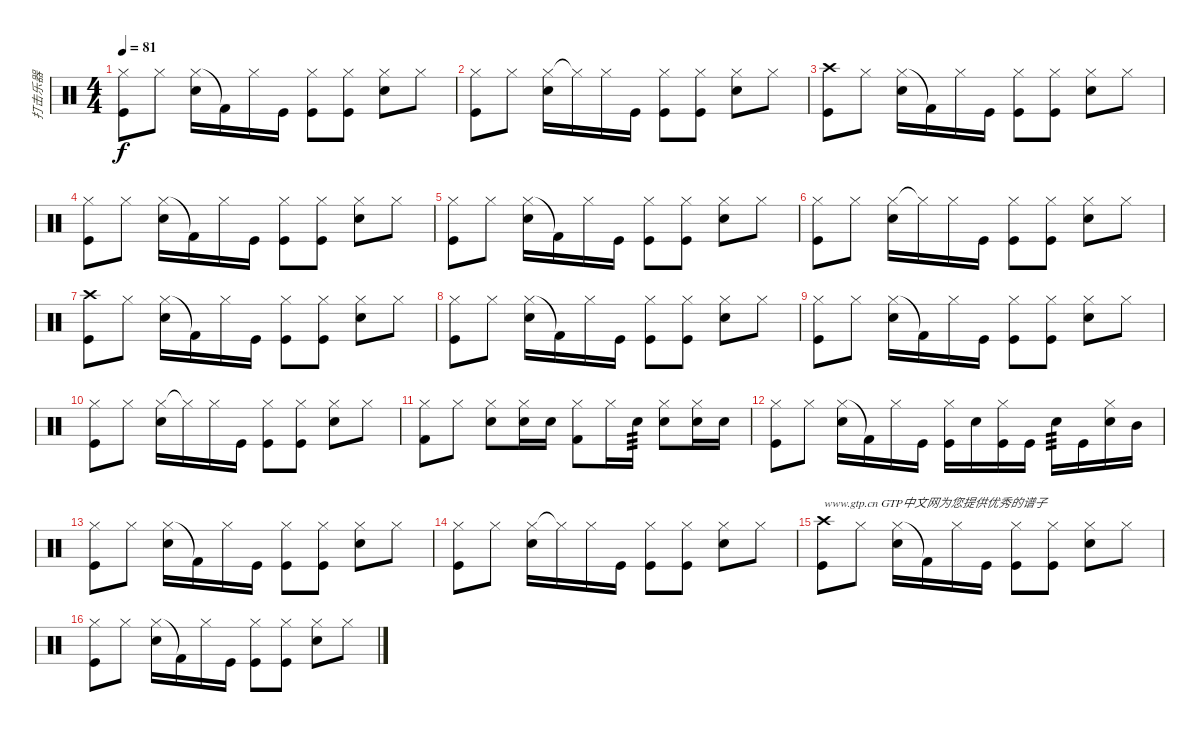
\track ("打击乐器" "打击乐器") {instrument percussion}
\staff {score}
\articulation defaults
\ts (4 4)
\tempo 81
\clef neutral
\ks c
("Hi-Hat (closed)" "Kick (hit)").8{dy f} "Hi-Hat (closed)".8 ("Hi-Hat (closed)" "Electric Snare (hit)").16 "Kick (hit) 2"{t}.16 "Hi-Hat (closed)".16 "Kick (hit)".16 ("Hi-Hat (closed)" "Kick (hit)").8 ("Hi-Hat (closed)" "Kick (hit)").8 ("Hi-Hat (closed)" "Electric Snare (hit)").8 "Hi-Hat (closed)".8 |
("Hi-Hat (closed)" "Kick (hit)").8 "Hi-Hat (closed)".8 ("Hi-Hat (closed)" "Electric Snare (hit)").16 "Hi-Hat (closed)"{t}.16 "Hi-Hat (closed)".16 "Kick (hit)".16 ("Hi-Hat (closed)" "Kick (hit)").8 ("Hi-Hat (closed)" "Kick (hit)").8 ("Hi-Hat (closed)" "Electric Snare (hit)").8 "Hi-Hat (closed)".8 |
("Crash high (hit)" "Kick (hit)").8 "Hi-Hat (closed)".8 ("Hi-Hat (closed)" "Electric Snare (hit)").16 "Kick (hit) 2"{t}.16 "Hi-Hat (closed)".16 "Kick (hit)".16 ("Hi-Hat (closed)" "Kick (hit)").8 ("Hi-Hat (closed)" "Kick (hit)").8 ("Hi-Hat (closed)" "Electric Snare (hit)").8 "Hi-Hat (closed)".8 |
("Hi-Hat (closed)" "Kick (hit)").8 "Hi-Hat (closed)".8 ("Hi-Hat (closed)" "Electric Snare (hit)").16 "Kick (hit) 2"{t}.16 "Hi-Hat (closed)".16 "Kick (hit)".16 ("Hi-Hat (closed)" "Kick (hit)").8 ("Hi-Hat (closed)" "Kick (hit)").8 ("Hi-Hat (closed)" "Electric Snare (hit)").8 "Hi-Hat (closed)".8 |
("Hi-Hat (closed)" "Kick (hit)").8 "Hi-Hat (closed)".8 ("Hi-Hat (closed)" "Electric Snare (hit)").16 "Kick (hit) 2"{t}.16 "Hi-Hat (closed)".16 "Kick (hit)".16 ("Hi-Hat (closed)" "Kick (hit)").8 ("Hi-Hat (closed)" "Kick (hit)").8 ("Hi-Hat (closed)" "Electric Snare (hit)").8 "Hi-Hat (closed)".8 |
("Hi-Hat (closed)" "Kick (hit)").8 "Hi-Hat (closed)".8 ("Hi-Hat (closed)" "Electric Snare (hit)").16 "Hi-Hat (closed)"{t}.16 "Hi-Hat (closed)".16 "Kick (hit)".16 ("Hi-Hat (closed)" "Kick (hit)").8 ("Hi-Hat (closed)" "Kick (hit)").8 ("Hi-Hat (closed)" "Electric Snare (hit)").8 "Hi-Hat (closed)".8 |
("Crash high (hit)" "Kick (hit)").8 "Hi-Hat (closed)".8 ("Hi-Hat (closed)" "Electric Snare (hit)").16 "Kick (hit) 2"{t}.16 "Hi-Hat (closed)".16 "Kick (hit)".16 ("Hi-Hat (closed)" "Kick (hit)").8 ("Hi-Hat (closed)" "Kick (hit)").8 ("Hi-Hat (closed)" "Electric Snare (hit)").8 "Hi-Hat (closed)".8 |
("Hi-Hat (closed)" "Kick (hit)").8 "Hi-Hat (closed)".8 ("Hi-Hat (closed)" "Electric Snare (hit)").16 "Kick (hit) 2"{t}.16 "Hi-Hat (closed)".16 "Kick (hit)".16 ("Hi-Hat (closed)" "Kick (hit)").8 ("Hi-Hat (closed)" "Kick (hit)").8 ("Hi-Hat (closed)" "Electric Snare (hit)").8 "Hi-Hat (closed)".8 |
("Hi-Hat (closed)" "Kick (hit)").8 "Hi-Hat (closed)".8 ("Hi-Hat (closed)" "Electric Snare (hit)").16 "Kick (hit) 2"{t}.16 "Hi-Hat (closed)".16 "Kick (hit)".16 ("Hi-Hat (closed)" "Kick (hit)").8 ("Hi-Hat (closed)" "Kick (hit)").8 ("Hi-Hat (closed)" "Electric Snare (hit)").8 "Hi-Hat (closed)".8 |
("Hi-Hat (closed)" "Kick (hit)").8 "Hi-Hat (closed)".8 ("Hi-Hat (closed)" "Electric Snare (hit)").16 "Hi-Hat (closed)"{t}.16 "Hi-Hat (closed)".16 "Kick (hit)".16 ("Hi-Hat (closed)" "Kick (hit)").8 ("Hi-Hat (closed)" "Kick (hit)").8 ("Hi-Hat (closed)" "Electric Snare (hit)").8 "Hi-Hat (closed)".8 |
("Hi-Hat (closed)" "Kick (hit) 2").8 "Hi-Hat (closed)".8 ("Hi-Hat (closed)" "Electric Snare (hit)").8 ("Hi-Hat (closed)" "Electric Snare (hit)").16 "Electric Snare (hit)".16 ("Hi-Hat (closed)" "Kick (hit) 2").8 "Hi-Hat (closed)".16 "Electric Snare (hit)".16{tp 3} ("Hi-Hat (closed)" "Electric Snare (hit)").8 ("Hi-Hat (closed)" "Electric Snare (hit)").16 "Electric Snare (hit)".16 |
("Hi-Hat (closed)" "Kick (hit)").8 "Hi-Hat (closed)".8 ("Hi-Hat (closed)" "Electric Snare (hit)").16 "Kick (hit) 2"{t}.16 "Hi-Hat (closed)".16 "Kick (hit)".16 ("Hi-Hat (closed)" "Kick (hit)").16 "Electric Snare (hit)".16 ("Hi-Hat (closed)" "Kick (hit)").16 "Kick (hit)".16 "Electric Snare (hit)".16{tp 3} "Kick (hit)".16 ("Hi-Hat (closed)" "Electric Snare (hit)").16 "Mid Tom (hit)".16 |
("Hi-Hat (closed)" "Kick (hit)").8 "Hi-Hat (closed)".8 ("Hi-Hat (closed)" "Electric Snare (hit)").16 "Kick (hit) 2"{t}.16 "Hi-Hat (closed)".16 "Kick (hit)".16 ("Hi-Hat (closed)" "Kick (hit)").8 ("Hi-Hat (closed)" "Kick (hit)").8 ("Hi-Hat (closed)" "Electric Snare (hit)").8 "Hi-Hat (closed)".8 |
("Hi-Hat (closed)" "Kick (hit)").8 "Hi-Hat (closed)".8 ("Hi-Hat (closed)" "Electric Snare (hit)").16 "Hi-Hat (closed)"{t}.16 "Hi-Hat (closed)".16 "Kick (hit)".16 ("Hi-Hat (closed)" "Kick (hit)").8 ("Hi-Hat (closed)" "Kick (hit)").8 ("Hi-Hat (closed)" "Electric Snare (hit)").8 "Hi-Hat (closed)".8 |
("Crash high (hit)" "Kick (hit)").8{txt "www.gtp.cn GTP中文网为您提供优秀的谱子"} "Hi-Hat (closed)".8 ("Hi-Hat (closed)" "Electric Snare (hit)").16 "Kick (hit) 2"{t}.16 "Hi-Hat (closed)".16 "Kick (hit)".16 ("Hi-Hat (closed)" "Kick (hit)").8 ("Hi-Hat (closed)" "Kick (hit)").8 ("Hi-Hat (closed)" "Electric Snare (hit)").8 "Hi-Hat (closed)".8 |
("Hi-Hat (closed)" "Kick (hit)").8 "Hi-Hat (closed)".8 ("Hi-Hat (closed)" "Electric Snare (hit)").16 "Kick (hit) 2"{t}.16 "Hi-Hat (closed)".16 "Kick (hit)".16 ("Hi-Hat (closed)" "Kick (hit)").8 ("Hi-Hat (closed)" "Kick (hit)").8 ("Hi-Hat (closed)" "Electric Snare (hit)").8 "Hi-Hat (closed)".8
